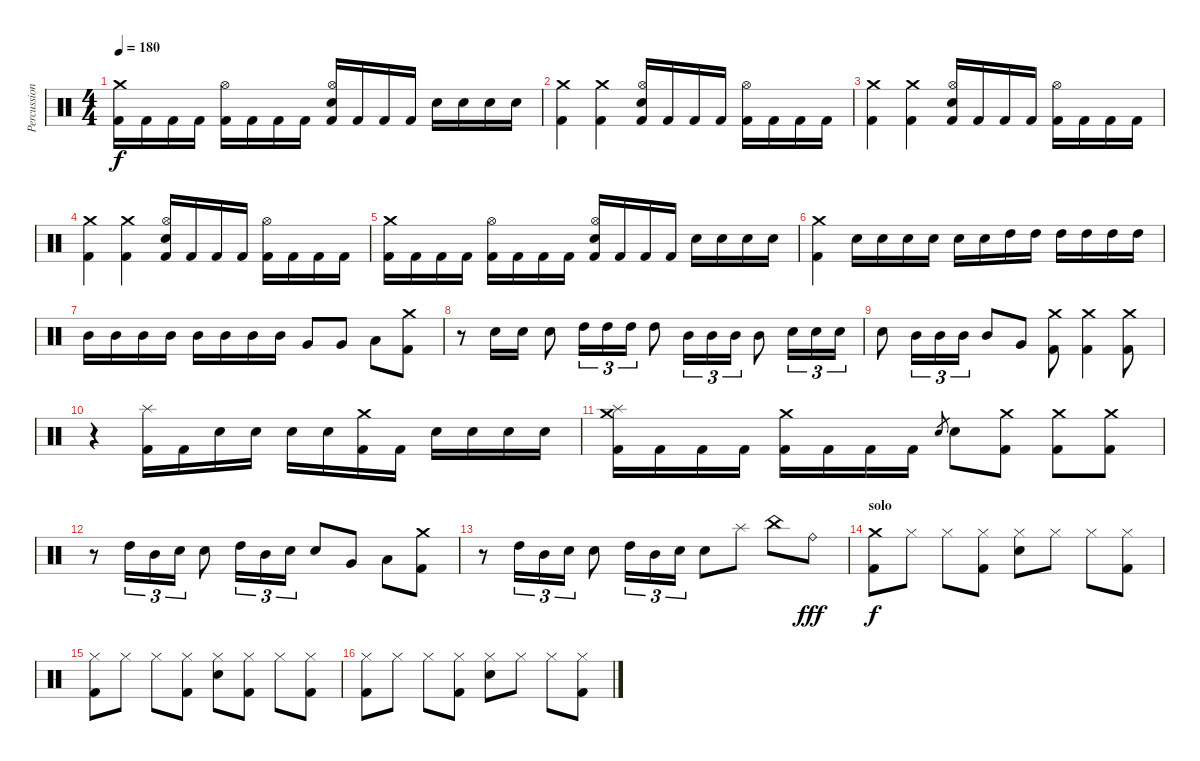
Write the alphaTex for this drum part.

\track ("Percussion" "Percussion") {instrument percussion}
\staff {score}
\articulation defaults
\ts (4 4)
\tempo 180
\clef neutral
\ks c
("Crash medium (hit)" "Kick (hit) 2").16{dy f} "Kick (hit) 2".16 "Kick (hit) 2".16 "Kick (hit) 2".16 ("Hi-Hat (open)" "Kick (hit) 2").16 "Kick (hit) 2".16 "Kick (hit) 2".16 "Kick (hit) 2".16 ("Hi-Hat (open)" "Electric Snare (hit)" "Kick (hit) 2").16 "Kick (hit) 2".16 "Kick (hit) 2".16 "Kick (hit) 2".16 "Electric Snare (hit)".16 "Electric Snare (hit)".16 "Electric Snare (hit)".16 "Electric Snare (hit)".16 |
("Crash medium (hit)" "Kick (hit) 2").4 ("Crash medium (hit)" "Kick (hit) 2").4 ("Hi-Hat (open)" "Electric Snare (hit)" "Kick (hit) 2").16 "Kick (hit) 2".16 "Kick (hit) 2".16 "Kick (hit) 2".16 ("Hi-Hat (open)" "Kick (hit) 2").16 "Kick (hit) 2".16 "Kick (hit) 2".16 "Kick (hit) 2".16 |
("Crash medium (hit)" "Kick (hit) 2").4 ("Crash medium (hit)" "Kick (hit) 2").4 ("Hi-Hat (open)" "Electric Snare (hit)" "Kick (hit) 2").16 "Kick (hit) 2".16 "Kick (hit) 2".16 "Kick (hit) 2".16 ("Hi-Hat (open)" "Kick (hit) 2").16 "Kick (hit) 2".16 "Kick (hit) 2".16 "Kick (hit) 2".16 |
("Crash medium (hit)" "Kick (hit) 2").4 ("Crash medium (hit)" "Kick (hit) 2").4 ("Hi-Hat (open)" "Electric Snare (hit)" "Kick (hit) 2").16 "Kick (hit) 2".16 "Kick (hit) 2".16 "Kick (hit) 2".16 ("Hi-Hat (open)" "Kick (hit) 2").16 "Kick (hit) 2".16 "Kick (hit) 2".16 "Kick (hit) 2".16 |
("Crash medium (hit)" "Kick (hit) 2").16 "Kick (hit) 2".16 "Kick (hit) 2".16 "Kick (hit) 2".16 ("Hi-Hat (open)" "Kick (hit) 2").16 "Kick (hit) 2".16 "Kick (hit) 2".16 "Kick (hit) 2".16 ("Hi-Hat (open)" "Electric Snare (hit)" "Kick (hit) 2").16 "Kick (hit) 2".16 "Kick (hit) 2".16 "Kick (hit) 2".16 "Electric Snare (hit)".16 "Electric Snare (hit)".16 "Electric Snare (hit)".16 "Electric Snare (hit)".16 |
("Crash medium (hit)" "Kick (hit) 2").4 "Electric Snare (hit)".16 "Electric Snare (hit)".16 "Electric Snare (hit)".16 "Electric Snare (hit)".16 "Electric Snare (hit)".16 "Electric Snare (hit)".16 "High Tom (hit)".16 "High Tom (hit)".16 "High Tom (hit)".16 "High Tom (hit)".16 "High Tom (hit)".16 "High Tom (hit)".16 |
"Mid Tom (hit)".16 "Mid Tom (hit)".16 "Mid Tom (hit)".16 "Mid Tom (hit)".16 "Mid Tom (hit)".16 "Mid Tom (hit)".16 "Mid Tom (hit)".16 "Mid Tom (hit)".16 "Very Low Tom (hit)".8 "Very Low Tom (hit)".8 "Low Floor Tom (hit)".8 ("Crash medium (hit)" "Kick (hit) 2").8 |
r.8 "Electric Snare (hit)".16 "Electric Snare (hit)".16 "Electric Snare (hit)".8 "High Tom (hit)".16{tu (3 2)} "High Tom (hit)".16{tu (3 2)} "High Tom (hit)".16{tu (3 2)} "High Tom (hit)".8 "Mid Tom (hit)".16{tu (3 2)} "Mid Tom (hit)".16{tu (3 2)} "Mid Tom (hit)".16{tu (3 2)} "Mid Tom (hit)".8 "Electric Snare (hit)".16{tu (3 2)} "Electric Snare (hit)".16{tu (3 2)} "Electric Snare (hit)".16{tu (3 2)} |
"Electric Snare (hit)".8 "Mid Tom (hit)".16{tu (3 2)} "Mid Tom (hit)".16{tu (3 2)} "Mid Tom (hit)".16{tu (3 2)} "Mid Tom (hit)".8 "Very Low Tom (hit)".8 ("Crash medium (hit)" "Kick (hit) 2").8 ("Crash medium (hit)" "Kick (hit) 2").4 ("Crash medium (hit)" "Kick (hit) 2").8 |
r.4 ("Splash (hit)" "Kick (hit) 2").16 "Kick (hit) 2".16 "Electric Snare (hit)".16 "Electric Snare (hit)".16 "Electric Snare (hit)".16 "Electric Snare (hit)".16 ("Crash medium (hit)" "Kick (hit) 2").16 "Kick (hit) 2".16 "Electric Snare (hit)".16 "Electric Snare (hit)".16 "Electric Snare (hit)".16 "Electric Snare (hit)".16 |
("Splash (hit)" "Crash medium (hit)" "Kick (hit) 2").16 "Kick (hit) 2".16 "Kick (hit) 2".16 "Kick (hit) 2".16 ("Crash medium (hit)" "Kick (hit) 2").16 "Kick (hit) 2".16 "Kick (hit) 2".16 "Kick (hit) 2".16 "Electric Snare (hit)".8{gr} "Electric Snare (hit)".8 ("Crash medium (hit)" "Kick (hit) 2").8 ("Crash medium (hit)" "Kick (hit) 2").8 ("Crash medium (hit)" "Kick (hit) 2").8 |
r.8 "High Tom (hit)".16{tu (3 2)} "Mid Tom (hit)".16{tu (3 2)} "Electric Snare (hit)".16{tu (3 2)} "Electric Snare (hit)".8 "High Tom (hit)".16{tu (3 2)} "Mid Tom (hit)".16{tu (3 2)} "Electric Snare (hit)".16{tu (3 2)} "Electric Snare (hit)".8 "Very Low Tom (hit)".8 "Low Floor Tom (hit)".8 ("Crash medium (hit)" "Kick (hit) 2").8 |
r.8 "High Tom (hit)".16{tu (3 2)} "Mid Tom (hit)".16{tu (3 2)} "Electric Snare (hit)".16{tu (3 2)} "Electric Snare (hit)".8 "High Tom (hit)".16{tu (3 2)} "Mid Tom (hit)".16{tu (3 2)} "Electric Snare (hit)".16{tu (3 2)} "Electric Snare (hit)".8 "Splash (hit)".8 "China (hit)".8 "Ride (bell)".8{dy fff} |
\section ("" "solo")
("Crash medium (hit)" "Kick (hit) 2").8{dy f} "Hi-Hat (closed)".8 "Hi-Hat (closed)".8 ("Hi-Hat (closed)" "Kick (hit) 2").8 ("Hi-Hat (closed)" "Electric Snare (hit)").8 "Hi-Hat (closed)".8 "Hi-Hat (closed)".8 ("Hi-Hat (closed)" "Kick (hit) 2").8 |
("Hi-Hat (closed)" "Kick (hit) 2").8 "Hi-Hat (closed)".8 "Hi-Hat (closed)".8 ("Hi-Hat (closed)" "Kick (hit) 2").8 ("Hi-Hat (closed)" "Electric Snare (hit)").8 ("Hi-Hat (closed)" "Kick (hit) 2").8 "Hi-Hat (closed)".8 ("Hi-Hat (closed)" "Kick (hit) 2").8 |
("Hi-Hat (closed)" "Kick (hit) 2").8 "Hi-Hat (closed)".8 "Hi-Hat (closed)".8 ("Hi-Hat (closed)" "Kick (hit) 2").8 ("Hi-Hat (closed)" "Electric Snare (hit)").8 "Hi-Hat (closed)".8 "Hi-Hat (closed)".8 ("Hi-Hat (closed)" "Kick (hit) 2").8
